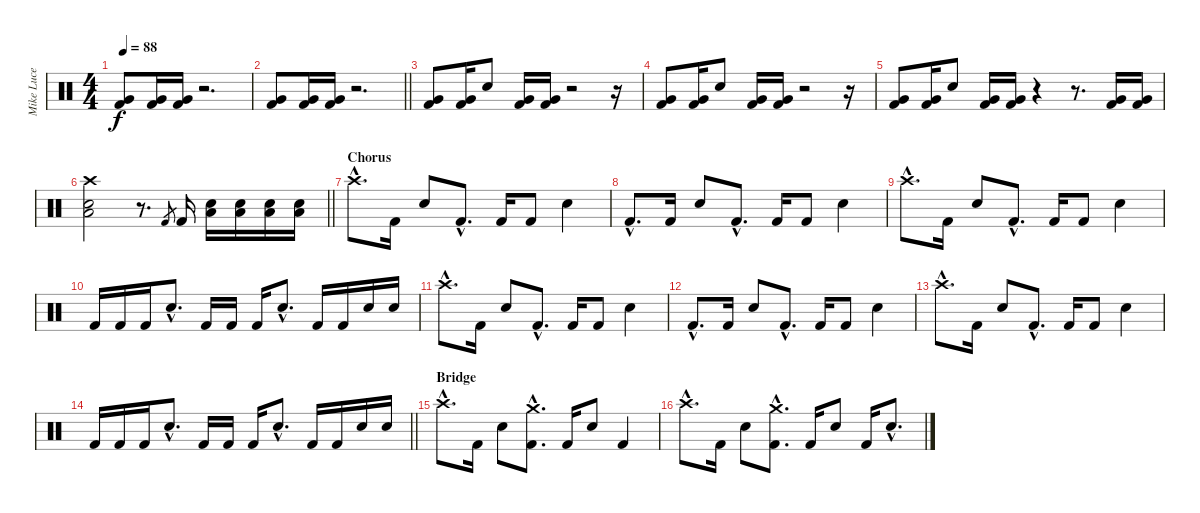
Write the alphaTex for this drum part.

\track ("Mike Luce (Drums)" "Mike Luce ") {instrument percussion}
\staff {score}
\articulation defaults
\ts (4 4)
\tempo 88
\clef neutral
\ks c
("Kick (hit) 2" "Very Low Tom (hit)").8{dy f} ("Kick (hit) 2" "Very Low Tom (hit)").16 ("Kick (hit) 2" "Very Low Tom (hit)").16 r.2{d} |
\barLineRight lightlight
("Kick (hit) 2" "Very Low Tom (hit)").8 ("Kick (hit) 2" "Very Low Tom (hit)").16 ("Kick (hit) 2" "Very Low Tom (hit)").16 r.2{d} |
("Kick (hit) 2" "Very Low Tom (hit)").8 ("Kick (hit) 2" "Very Low Tom (hit)").16 "Electric Snare (hit)".8 ("Kick (hit) 2" "Very Low Tom (hit)").16 ("Kick (hit) 2" "Very Low Tom (hit)").16 r.2 r.16 |
("Kick (hit) 2" "Very Low Tom (hit)").8 ("Kick (hit) 2" "Very Low Tom (hit)").16 "Electric Snare (hit)".8 ("Kick (hit) 2" "Very Low Tom (hit)").16 ("Kick (hit) 2" "Very Low Tom (hit)").16 r.2 r.16 |
("Kick (hit) 2" "Very Low Tom (hit)").8 ("Kick (hit) 2" "Very Low Tom (hit)").16 "Electric Snare (hit)".8 ("Kick (hit) 2" "Very Low Tom (hit)").16 ("Kick (hit) 2" "Very Low Tom (hit)").16 r.4 r.8{d} ("Kick (hit) 2" "Very Low Tom (hit)").16 ("Kick (hit) 2" "Very Low Tom (hit)").16 |
\barLineRight lightlight
("Crash high (hit)" "Electric Snare (hit)" "Low Floor Tom (hit)").2 r.8{d} "Kick (hit) 2".8{gr} "Kick (hit) 2".16 ("Electric Snare (hit)" "Low Floor Tom (hit)").16 ("Electric Snare (hit)" "Low Floor Tom (hit)").16 ("Electric Snare (hit)" "Low Floor Tom (hit)").16 ("Electric Snare (hit)" "Low Floor Tom (hit)").16 |
\section ("" "Chorus")
"Crash high (hit)"{hac}.8{d} "Kick (hit) 2".16 "Electric Snare (hit)".8 "Kick (hit) 2"{hac}.8{d} "Kick (hit) 2".16 "Kick (hit) 2".8 "Electric Snare (hit)".4 |
"Kick (hit) 2"{hac}.8{d} "Kick (hit) 2".16 "Electric Snare (hit)".8 "Kick (hit) 2"{hac}.8{d} "Kick (hit) 2".16 "Kick (hit) 2".8 "Electric Snare (hit)".4 |
"Crash high (hit)"{hac}.8{d} "Kick (hit) 2".16 "Electric Snare (hit)".8 "Kick (hit) 2"{hac}.8{d} "Kick (hit) 2".16 "Kick (hit) 2".8 "Electric Snare (hit)".4 |
"Kick (hit) 2".16 "Kick (hit) 2".16 "Kick (hit) 2".16 "Electric Snare (hit)"{hac}.8{d} "Kick (hit) 2".16 "Kick (hit) 2".16 "Kick (hit) 2".16 "Electric Snare (hit)"{hac}.8{d} "Kick (hit) 2".16 "Kick (hit) 2".16 "Electric Snare (hit)".16 "Electric Snare (hit)".16 |
"Crash high (hit)"{hac}.8{d} "Kick (hit) 2".16 "Electric Snare (hit)".8 "Kick (hit) 2"{hac}.8{d} "Kick (hit) 2".16 "Kick (hit) 2".8 "Electric Snare (hit)".4 |
"Kick (hit) 2"{hac}.8{d} "Kick (hit) 2".16 "Electric Snare (hit)".8 "Kick (hit) 2"{hac}.8{d} "Kick (hit) 2".16 "Kick (hit) 2".8 "Electric Snare (hit)".4 |
"Crash high (hit)"{hac}.8{d} "Kick (hit) 2".16 "Electric Snare (hit)".8 "Kick (hit) 2"{hac}.8{d} "Kick (hit) 2".16 "Kick (hit) 2".8 "Electric Snare (hit)".4 |
\barLineRight lightlight "Kick (hit) 2".16 "Kick (hit) 2".16 "Kick (hit) 2".16 "Electric Snare (hit)"{hac}.8{d} "Kick (hit) 2".16 "Kick (hit) 2".16 "Kick (hit) 2".16 "Electric Snare (hit)"{hac}.8{d} "Kick (hit) 2".16 "Kick (hit) 2".16 "Electric Snare (hit)".16 "Electric Snare (hit)".16
|
\section ("" "Bridge")
"Crash high (hit)"{hac}.8{d} "Kick (hit) 2".16 "Electric Snare (hit)".8 ("Kick (hit) 2"{hac} "Crash medium (hit)"{hac}).8{d} "Kick (hit) 2".16 "Electric Snare (hit)".8 "Kick (hit) 2".4 |
"Crash high (hit)"{hac}.8{d} "Kick (hit) 2".16 "Electric Snare (hit)".8 ("Kick (hit) 2"{hac} "Crash medium (hit)"{hac}).8{d} "Kick (hit) 2".16 "Electric Snare (hit)".8 "Kick (hit) 2".16 "Electric Snare (hit)"{hac}.8{d}
